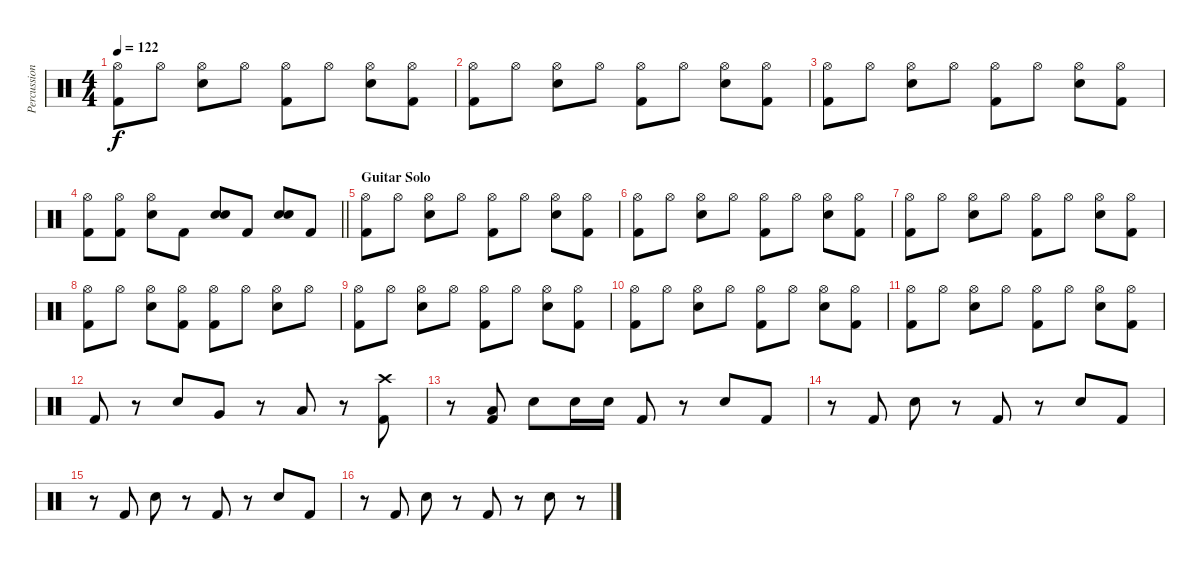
\track ("Percussion" "Percussion") {instrument percussion}
\staff {score}
\articulation defaults
\ts (4 4)
\tempo 122
\clef neutral
\ks c
("Hi-Hat (open)" "Kick (hit) 2").8{dy f} "Hi-Hat (open)".8 ("Hi-Hat (open)" "Snare (hit) 2").8 "Hi-Hat (open)".8 ("Hi-Hat (open)" "Kick (hit) 2").8 "Hi-Hat (open)".8 ("Hi-Hat (open)" "Snare (hit) 2").8 ("Hi-Hat (open)" "Kick (hit) 2").8 |
("Hi-Hat (open)" "Kick (hit) 2").8 "Hi-Hat (open)".8 ("Hi-Hat (open)" "Snare (hit) 2").8 "Hi-Hat (open)".8 ("Hi-Hat (open)" "Kick (hit) 2").8 "Hi-Hat (open)".8 ("Hi-Hat (open)" "Snare (hit) 2").8 ("Hi-Hat (open)" "Kick (hit) 2").8 |
("Hi-Hat (open)" "Kick (hit) 2").8 "Hi-Hat (open)".8 ("Hi-Hat (open)" "Snare (hit) 2").8 "Hi-Hat (open)".8 ("Hi-Hat (open)" "Kick (hit) 2").8 "Hi-Hat (open)".8 ("Hi-Hat (open)" "Snare (hit) 2").8 ("Hi-Hat (open)" "Kick (hit) 2").8 |
\barLineRight lightlight
("Hi-Hat (open)" "Kick (hit) 2").8 ("Hi-Hat (open)" "Kick (hit) 2").8 ("Hi-Hat (open)" "Snare (hit) 2").8 "Kick (hit) 2".8 ("Snare (hit) 2" "Snare (hit) 2").8 "Kick (hit) 2".8 ("Snare (hit) 2" "Snare (hit) 2").8 "Kick (hit) 2".8 |
\section ("" "Guitar Solo")
("Hi-Hat (open)" "Kick (hit) 2").8 "Hi-Hat (open)".8 ("Hi-Hat (open)" "Snare (hit) 2").8 "Hi-Hat (open)".8 ("Hi-Hat (open)" "Kick (hit) 2").8 "Hi-Hat (open)".8 ("Hi-Hat (open)" "Snare (hit) 2").8 ("Hi-Hat (open)" "Kick (hit) 2").8 |
("Hi-Hat (open)" "Kick (hit) 2").8 "Hi-Hat (open)".8 ("Hi-Hat (open)" "Snare (hit) 2").8 "Hi-Hat (open)".8 ("Hi-Hat (open)" "Kick (hit) 2").8 "Hi-Hat (open)".8 ("Hi-Hat (open)" "Snare (hit) 2").8 ("Hi-Hat (open)" "Kick (hit) 2").8 |
("Hi-Hat (open)" "Kick (hit) 2").8 "Hi-Hat (open)".8 ("Hi-Hat (open)" "Snare (hit) 2").8 "Hi-Hat (open)".8 ("Hi-Hat (open)" "Kick (hit) 2").8 "Hi-Hat (open)".8 ("Hi-Hat (open)" "Snare (hit) 2").8 ("Hi-Hat (open)" "Kick (hit) 2").8 |
("Hi-Hat (open)" "Kick (hit) 2").8 "Hi-Hat (open)".8 ("Hi-Hat (open)" "Snare (hit) 2").8 ("Hi-Hat (open)" "Kick (hit) 2").8 ("Hi-Hat (open)" "Kick (hit) 2").8 "Hi-Hat (open)".8 ("Hi-Hat (open)" "Snare (hit) 2").8 "Hi-Hat (open)".8 |
("Hi-Hat (open)" "Kick (hit) 2").8 "Hi-Hat (open)".8 ("Hi-Hat (open)" "Snare (hit) 2").8 "Hi-Hat (open)".8 ("Hi-Hat (open)" "Kick (hit) 2").8 "Hi-Hat (open)".8 ("Hi-Hat (open)" "Snare (hit) 2").8 ("Hi-Hat (open)" "Kick (hit) 2").8 |
("Hi-Hat (open)" "Kick (hit) 2").8 "Hi-Hat (open)".8 ("Hi-Hat (open)" "Snare (hit) 2").8 "Hi-Hat (open)".8 ("Hi-Hat (open)" "Kick (hit) 2").8 "Hi-Hat (open)".8 ("Hi-Hat (open)" "Snare (hit) 2").8 ("Hi-Hat (open)" "Kick (hit) 2").8 |
("Hi-Hat (open)" "Kick (hit) 2").8 "Hi-Hat (open)".8 ("Hi-Hat (open)" "Snare (hit) 2").8 "Hi-Hat (open)".8 ("Hi-Hat (open)" "Kick (hit) 2").8 "Hi-Hat (open)".8 ("Hi-Hat (open)" "Snare (hit) 2").8 ("Hi-Hat (open)" "Kick (hit) 2").8 |
"Kick (hit) 2".8 r.8 "Snare (hit) 2".8 "Very Low Tom (hit)".8 r.8 "Low Floor Tom (hit)".8 r.8 ("Crash high (hit)" "Kick (hit) 2").8 |
r.8 ("Low Tom (hit)" "Kick (hit) 2").8 "Snare (hit) 2".8 "Snare (hit) 2".16 "Snare (hit) 2".16 "Kick (hit) 2".8 r.8 "Snare (hit) 2".8 "Kick (hit) 2".8 |
r.8 "Kick (hit) 2".8 "Snare (hit) 2".8 r.8 "Kick (hit) 2".8 r.8 "Snare (hit) 2".8 "Kick (hit) 2".8 |
r.8 "Kick (hit) 2".8 "Snare (hit) 2".8 r.8 "Kick (hit) 2".8 r.8 "Snare (hit) 2".8 "Kick (hit) 2".8 |
r.8 "Kick (hit) 2".8 "Snare (hit) 2".8 r.8 "Kick (hit) 2".8 r.8 "Snare (hit) 2".8 r.8
